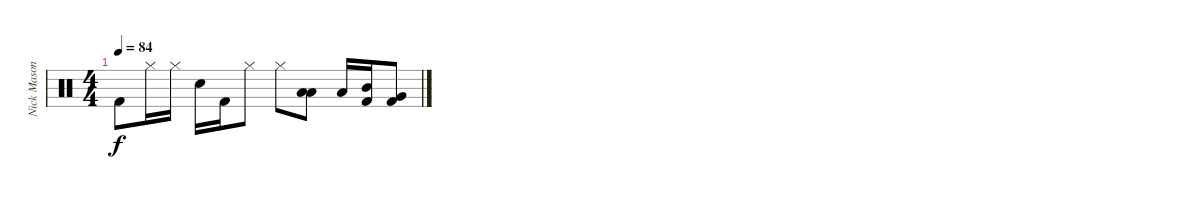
\track ("Nick Mason" "Nick Mason") {instrument percussion}
\staff {score}
\articulation defaults
\ts (4 4)
\tempo 84
\clef neutral
\ks c "Kick (hit) 2".8{dy f} "Hi-Hat (closed)".16 "Hi-Hat (closed)".16 "Snare (hit) 2".16 "Kick (hit) 2".16 "Hi-Hat (closed)".8 "Hi-Hat (closed)".8
("Low Tom (hit)" "Low Tom (hit)").8 "Low Tom (hit)".16 ("Mid Tom (hit)" "Kick (hit) 2").16 ("Very Low Tom (hit)" "Kick (hit) 2").8
